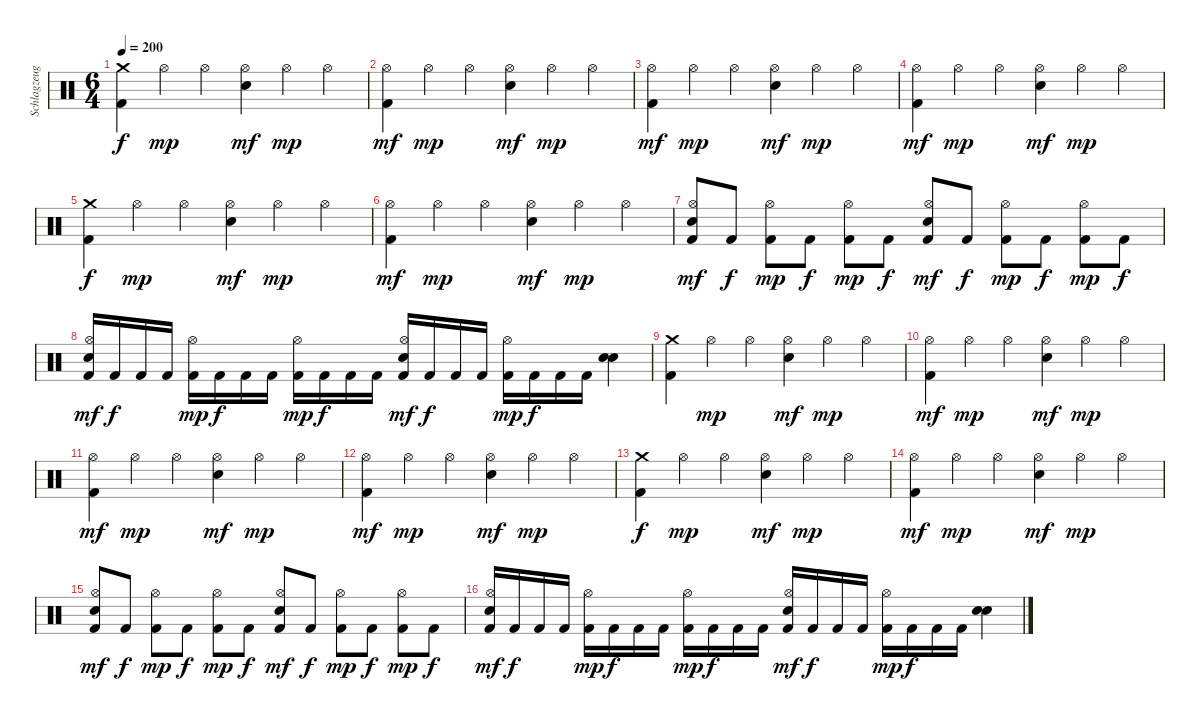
\track ("Schlagzeug" "Schlagzeug") {instrument percussion}
\staff {score}
\articulation defaults
\ts (6 4)
\section ("" "")
\tempo 200
\clef neutral
\ks c
("Crash medium (hit)" "Kick (hit) 2").4{dy f} "Hi-Hat (open)".4{dy mp} "Hi-Hat (open)".4 ("Hi-Hat (open)" "Electric Snare (hit)").4{dy mf} "Hi-Hat (open)".4{dy mp} "Hi-Hat (open)".4 |
("Hi-Hat (open)" "Kick (hit) 2").4{dy mf} "Hi-Hat (open)".4{dy mp} "Hi-Hat (open)".4 ("Hi-Hat (open)" "Electric Snare (hit)").4{dy mf} "Hi-Hat (open)".4{dy mp} "Hi-Hat (open)".4 |
("Hi-Hat (open)" "Kick (hit) 2").4{dy mf} "Hi-Hat (open)".4{dy mp} "Hi-Hat (open)".4 ("Hi-Hat (open)" "Electric Snare (hit)").4{dy mf} "Hi-Hat (open)".4{dy mp} "Hi-Hat (open)".4 |
("Hi-Hat (open)" "Kick (hit) 2").4{dy mf} "Hi-Hat (open)".4{dy mp} "Hi-Hat (open)".4 ("Hi-Hat (open)" "Electric Snare (hit)").4{dy mf} "Hi-Hat (open)".4{dy mp} "Hi-Hat (open)".4 |
("Crash medium (hit)" "Kick (hit) 2").4{dy f} "Hi-Hat (open)".4{dy mp} "Hi-Hat (open)".4 ("Hi-Hat (open)" "Electric Snare (hit)").4{dy mf} "Hi-Hat (open)".4{dy mp} "Hi-Hat (open)".4 |
("Hi-Hat (open)" "Kick (hit) 2").4{dy mf} "Hi-Hat (open)".4{dy mp} "Hi-Hat (open)".4 ("Hi-Hat (open)" "Electric Snare (hit)").4{dy mf} "Hi-Hat (open)".4{dy mp} "Hi-Hat (open)".4 |
("Hi-Hat (open)" "Electric Snare (hit)" "Kick (hit) 2").8{dy mf} "Kick (hit) 2".8{dy f} ("Hi-Hat (open)" "Kick (hit) 2").8{dy mp} "Kick (hit) 2".8{dy f} ("Hi-Hat (open)" "Kick (hit) 2").8{dy mp} "Kick (hit) 2".8{dy f} ("Hi-Hat (open)" "Electric Snare (hit)" "Kick (hit) 2").8{dy mf} "Kick (hit) 2".8{dy f} ("Hi-Hat (open)" "Kick (hit) 2").8{dy mp} "Kick (hit) 2".8{dy f} ("Hi-Hat (open)" "Kick (hit) 2").8{dy mp} "Kick (hit) 2".8{dy f} |
("Hi-Hat (open)" "Electric Snare (hit)" "Kick (hit) 2").16{dy mf} "Kick (hit) 2".16{dy f} "Kick (hit) 2".16 "Kick (hit) 2".16 ("Hi-Hat (open)" "Kick (hit) 2").16{dy mp} "Kick (hit) 2".16{dy f} "Kick (hit) 2".16 "Kick (hit) 2".16 ("Hi-Hat (open)" "Kick (hit) 2").16{dy mp} "Kick (hit) 2".16{dy f} "Kick (hit) 2".16 "Kick (hit) 2".16 ("Hi-Hat (open)" "Electric Snare (hit)" "Kick (hit) 2").16{dy mf} "Kick (hit) 2".16{dy f} "Kick (hit) 2".16 "Kick (hit) 2".16 ("Hi-Hat (open)" "Kick (hit) 2").16{dy mp} "Kick (hit) 2".16{dy f} "Kick (hit) 2".16 "Kick (hit) 2".16 ("Electric Snare (hit)" "Electric Snare (hit)").4{bd 240} |
("Crash medium (hit)" "Kick (hit) 2").4 "Hi-Hat (open)".4{dy mp} "Hi-Hat (open)".4 ("Hi-Hat (open)" "Electric Snare (hit)").4{dy mf} "Hi-Hat (open)".4{dy mp} "Hi-Hat (open)".4 |
("Hi-Hat (open)" "Kick (hit) 2").4{dy mf} "Hi-Hat (open)".4{dy mp} "Hi-Hat (open)".4 ("Hi-Hat (open)" "Electric Snare (hit)").4{dy mf} "Hi-Hat (open)".4{dy mp} "Hi-Hat (open)".4 |
("Hi-Hat (open)" "Kick (hit) 2").4{dy mf} "Hi-Hat (open)".4{dy mp} "Hi-Hat (open)".4 ("Hi-Hat (open)" "Electric Snare (hit)").4{dy mf} "Hi-Hat (open)".4{dy mp} "Hi-Hat (open)".4 |
("Hi-Hat (open)" "Kick (hit) 2").4{dy mf} "Hi-Hat (open)".4{dy mp} "Hi-Hat (open)".4 ("Hi-Hat (open)" "Electric Snare (hit)").4{dy mf} "Hi-Hat (open)".4{dy mp} "Hi-Hat (open)".4 |
("Crash medium (hit)" "Kick (hit) 2").4{dy f} "Hi-Hat (open)".4{dy mp} "Hi-Hat (open)".4 ("Hi-Hat (open)" "Electric Snare (hit)").4{dy mf} "Hi-Hat (open)".4{dy mp} "Hi-Hat (open)".4 |
("Hi-Hat (open)" "Kick (hit) 2").4{dy mf} "Hi-Hat (open)".4{dy mp} "Hi-Hat (open)".4 ("Hi-Hat (open)" "Electric Snare (hit)").4{dy mf} "Hi-Hat (open)".4{dy mp} "Hi-Hat (open)".4 |
("Hi-Hat (open)" "Electric Snare (hit)" "Kick (hit) 2").8{dy mf} "Kick (hit) 2".8{dy f} ("Hi-Hat (open)" "Kick (hit) 2").8{dy mp} "Kick (hit) 2".8{dy f} ("Hi-Hat (open)" "Kick (hit) 2").8{dy mp} "Kick (hit) 2".8{dy f} ("Hi-Hat (open)" "Electric Snare (hit)" "Kick (hit) 2").8{dy mf} "Kick (hit) 2".8{dy f} ("Hi-Hat (open)" "Kick (hit) 2").8{dy mp} "Kick (hit) 2".8{dy f} ("Hi-Hat (open)" "Kick (hit) 2").8{dy mp} "Kick (hit) 2".8{dy f} |
("Hi-Hat (open)" "Electric Snare (hit)" "Kick (hit) 2").16{dy mf} "Kick (hit) 2".16{dy f} "Kick (hit) 2".16 "Kick (hit) 2".16 ("Hi-Hat (open)" "Kick (hit) 2").16{dy mp} "Kick (hit) 2".16{dy f} "Kick (hit) 2".16 "Kick (hit) 2".16 ("Hi-Hat (open)" "Kick (hit) 2").16{dy mp} "Kick (hit) 2".16{dy f} "Kick (hit) 2".16 "Kick (hit) 2".16 ("Hi-Hat (open)" "Electric Snare (hit)" "Kick (hit) 2").16{dy mf} "Kick (hit) 2".16{dy f} "Kick (hit) 2".16 "Kick (hit) 2".16 ("Hi-Hat (open)" "Kick (hit) 2").16{dy mp} "Kick (hit) 2".16{dy f} "Kick (hit) 2".16 "Kick (hit) 2".16 ("Electric Snare (hit)" "Electric Snare (hit)").4{bd 240}
